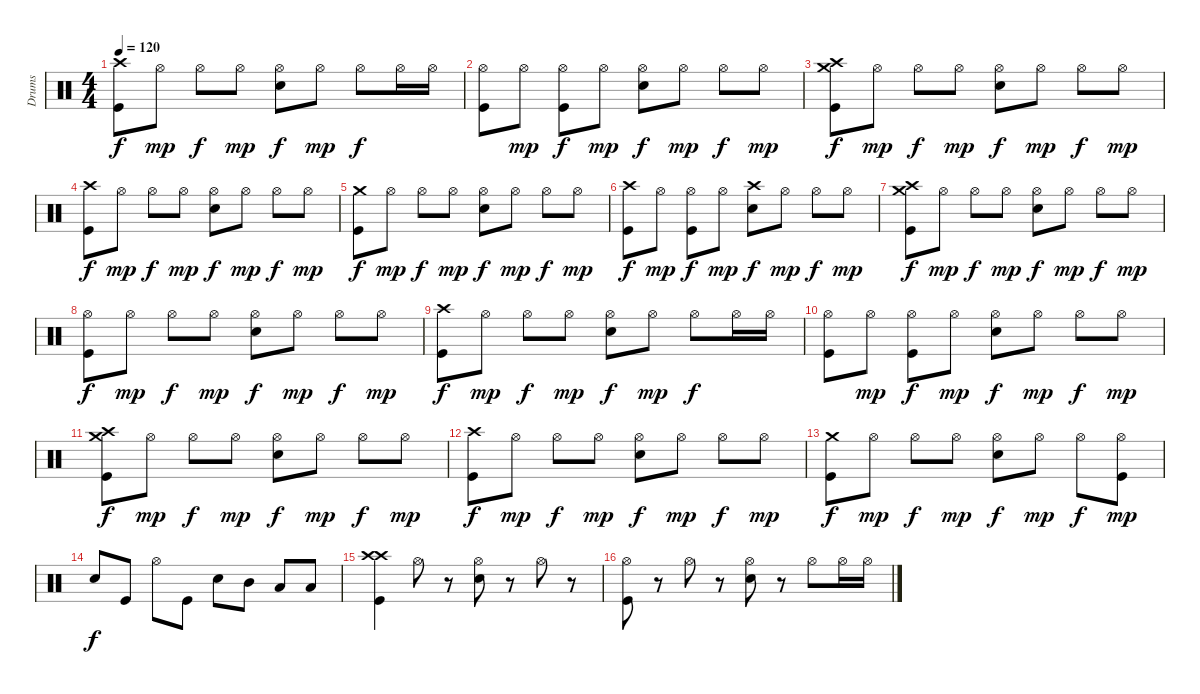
\track ("Drums" "Drums") {instrument percussion}
\staff {score}
\articulation defaults
\ts (4 4)
\tempo 120
\clef neutral
\ks c
("Kick (hit)" "Crash high (hit)").8{dy f} "Hi-Hat (open)".8{dy mp} "Hi-Hat (open)".8{dy f} "Hi-Hat (open)".8{dy mp} ("Snare (hit) 2" "Hi-Hat (open)").8{dy f} "Hi-Hat (open)".8{dy mp} "Hi-Hat (open)".8{dy f} "Hi-Hat (open)".16 "Hi-Hat (open)".16 |
("Kick (hit)" "Hi-Hat (open)").8 "Hi-Hat (open)".8{dy mp} ("Hi-Hat (open)" "Kick (hit)").8{dy f} "Hi-Hat (open)".8{dy mp} ("Hi-Hat (open)" "Snare (hit) 2").8{dy f} "Hi-Hat (open)".8{dy mp} "Hi-Hat (open)".8{dy f} "Hi-Hat (open)".8{dy mp} |
("Kick (hit)" "Crash high (hit)" "Crash medium (hit)").8{dy f} "Hi-Hat (open)".8{dy mp} "Hi-Hat (open)".8{dy f} "Hi-Hat (open)".8{dy mp} ("Snare (hit) 2" "Hi-Hat (open)").8{dy f} "Hi-Hat (open)".8{dy mp} "Hi-Hat (open)".8{dy f} "Hi-Hat (open)".8{dy mp} |
("Kick (hit)" "Crash high (hit)").8{dy f} "Hi-Hat (open)".8{dy mp} "Hi-Hat (open)".8{dy f} "Hi-Hat (open)".8{dy mp} ("Snare (hit) 2" "Hi-Hat (open)").8{dy f} "Hi-Hat (open)".8{dy mp} "Hi-Hat (open)".8{dy f} "Hi-Hat (open)".8{dy mp} |
("Kick (hit)" "Crash medium (hit)").8{dy f} "Hi-Hat (open)".8{dy mp} "Hi-Hat (open)".8{dy f} "Hi-Hat (open)".8{dy mp} ("Snare (hit) 2" "Hi-Hat (open)").8{dy f} "Hi-Hat (open)".8{dy mp} "Hi-Hat (open)".8{dy f} "Hi-Hat (open)".8{dy mp} |
("Kick (hit)" "Crash high (hit)").8{dy f} "Hi-Hat (open)".8{dy mp} ("Hi-Hat (open)" "Kick (hit)").8{dy f} "Hi-Hat (open)".8{dy mp} ("Snare (hit) 2" "Crash high (hit)").8{dy f} "Hi-Hat (open)".8{dy mp} "Hi-Hat (open)".8{dy f} "Hi-Hat (open)".8{dy mp} |
("Kick (hit)" "Crash high (hit)" "Crash medium (hit)").8{dy f} "Hi-Hat (open)".8{dy mp} "Hi-Hat (open)".8{dy f} "Hi-Hat (open)".8{dy mp} ("Snare (hit) 2" "Hi-Hat (open)").8{dy f} "Hi-Hat (open)".8{dy mp} "Hi-Hat (open)".8{dy f} "Hi-Hat (open)".8{dy mp} |
("Kick (hit)" "Hi-Hat (open)").8{dy f} "Hi-Hat (open)".8{dy mp} "Hi-Hat (open)".8{dy f} "Hi-Hat (open)".8{dy mp} ("Snare (hit) 2" "Hi-Hat (open)").8{dy f} "Hi-Hat (open)".8{dy mp} "Hi-Hat (open)".8{dy f} "Hi-Hat (open)".8{dy mp} |
("Kick (hit)" "Crash high (hit)").8{dy f} "Hi-Hat (open)".8{dy mp} "Hi-Hat (open)".8{dy f} "Hi-Hat (open)".8{dy mp} ("Snare (hit) 2" "Hi-Hat (open)").8{dy f} "Hi-Hat (open)".8{dy mp} "Hi-Hat (open)".8{dy f} "Hi-Hat (open)".16 "Hi-Hat (open)".16 |
("Kick (hit)" "Hi-Hat (open)").8 "Hi-Hat (open)".8{dy mp} ("Hi-Hat (open)" "Kick (hit)").8{dy f} "Hi-Hat (open)".8{dy mp} ("Hi-Hat (open)" "Snare (hit) 2").8{dy f} "Hi-Hat (open)".8{dy mp} "Hi-Hat (open)".8{dy f} "Hi-Hat (open)".8{dy mp} |
("Kick (hit)" "Crash high (hit)" "Crash medium (hit)").8{dy f} "Hi-Hat (open)".8{dy mp} "Hi-Hat (open)".8{dy f} "Hi-Hat (open)".8{dy mp} ("Snare (hit) 2" "Hi-Hat (open)").8{dy f} "Hi-Hat (open)".8{dy mp} "Hi-Hat (open)".8{dy f} "Hi-Hat (open)".8{dy mp} |
("Kick (hit)" "Crash high (hit)").8{dy f} "Hi-Hat (open)".8{dy mp} "Hi-Hat (open)".8{dy f} "Hi-Hat (open)".8{dy mp} ("Snare (hit) 2" "Hi-Hat (open)").8{dy f} "Hi-Hat (open)".8{dy mp} "Hi-Hat (open)".8{dy f} "Hi-Hat (open)".8{dy mp} |
("Kick (hit)" "Crash medium (hit)").8{dy f} "Hi-Hat (open)".8{dy mp} "Hi-Hat (open)".8{dy f} "Hi-Hat (open)".8{dy mp} ("Snare (hit) 2" "Hi-Hat (open)").8{dy f} "Hi-Hat (open)".8{dy mp} "Hi-Hat (open)".8{dy f} ("Kick (hit)" "Hi-Hat (open)").8{dy mp} |
"Snare (hit) 2".8{dy f} "Kick (hit)".8 "Hi-Hat (open)".8 "Kick (hit)".8 "Snare (hit) 2".8 "Mid Tom (hit)".8 "Low Tom (hit)".8 "Low Floor Tom (hit)".8 |
("Kick (hit)" "Crash high (hit)" "Crash high (hit)").4 "Hi-Hat (open)".8 r.8 ("Snare (hit) 2" "Hi-Hat (open)").8 r.8 "Hi-Hat (open)".8 r.8 |
("Kick (hit)" "Hi-Hat (open)").8 r.8 "Hi-Hat (open)".8 r.8 ("Hi-Hat (open)" "Snare (hit) 2").8 r.8 "Hi-Hat (open)".8 "Hi-Hat (open)".16 "Hi-Hat (open)".16
